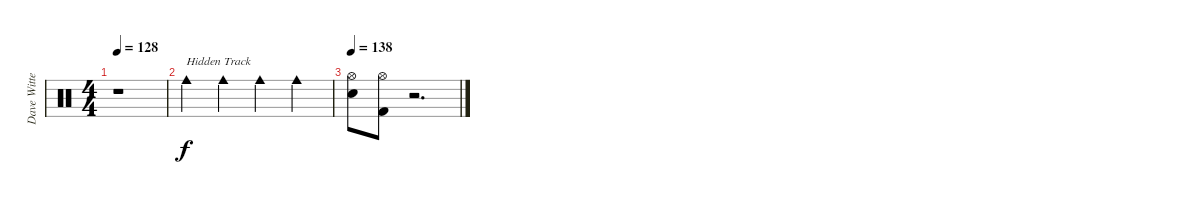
\track ("Dave Witte" "Dave Witte") {instrument percussion}
\staff {score}
\articulation defaults
\ts (4 4)
\tempo 128
\clef neutral
\ks c
r.1{dy f} |
"Cowbell medium (hit)".4{txt "Hidden Track" volume 14} "Cowbell medium (hit)".4 "Cowbell medium (hit)".4 "Cowbell medium (hit)".4 |
\tempo 138
("Hi-Hat (open)" "Electric Snare (hit)").8 ("Hi-Hat (open)" "Kick (hit) 2").8 r.2{d volume 0}
